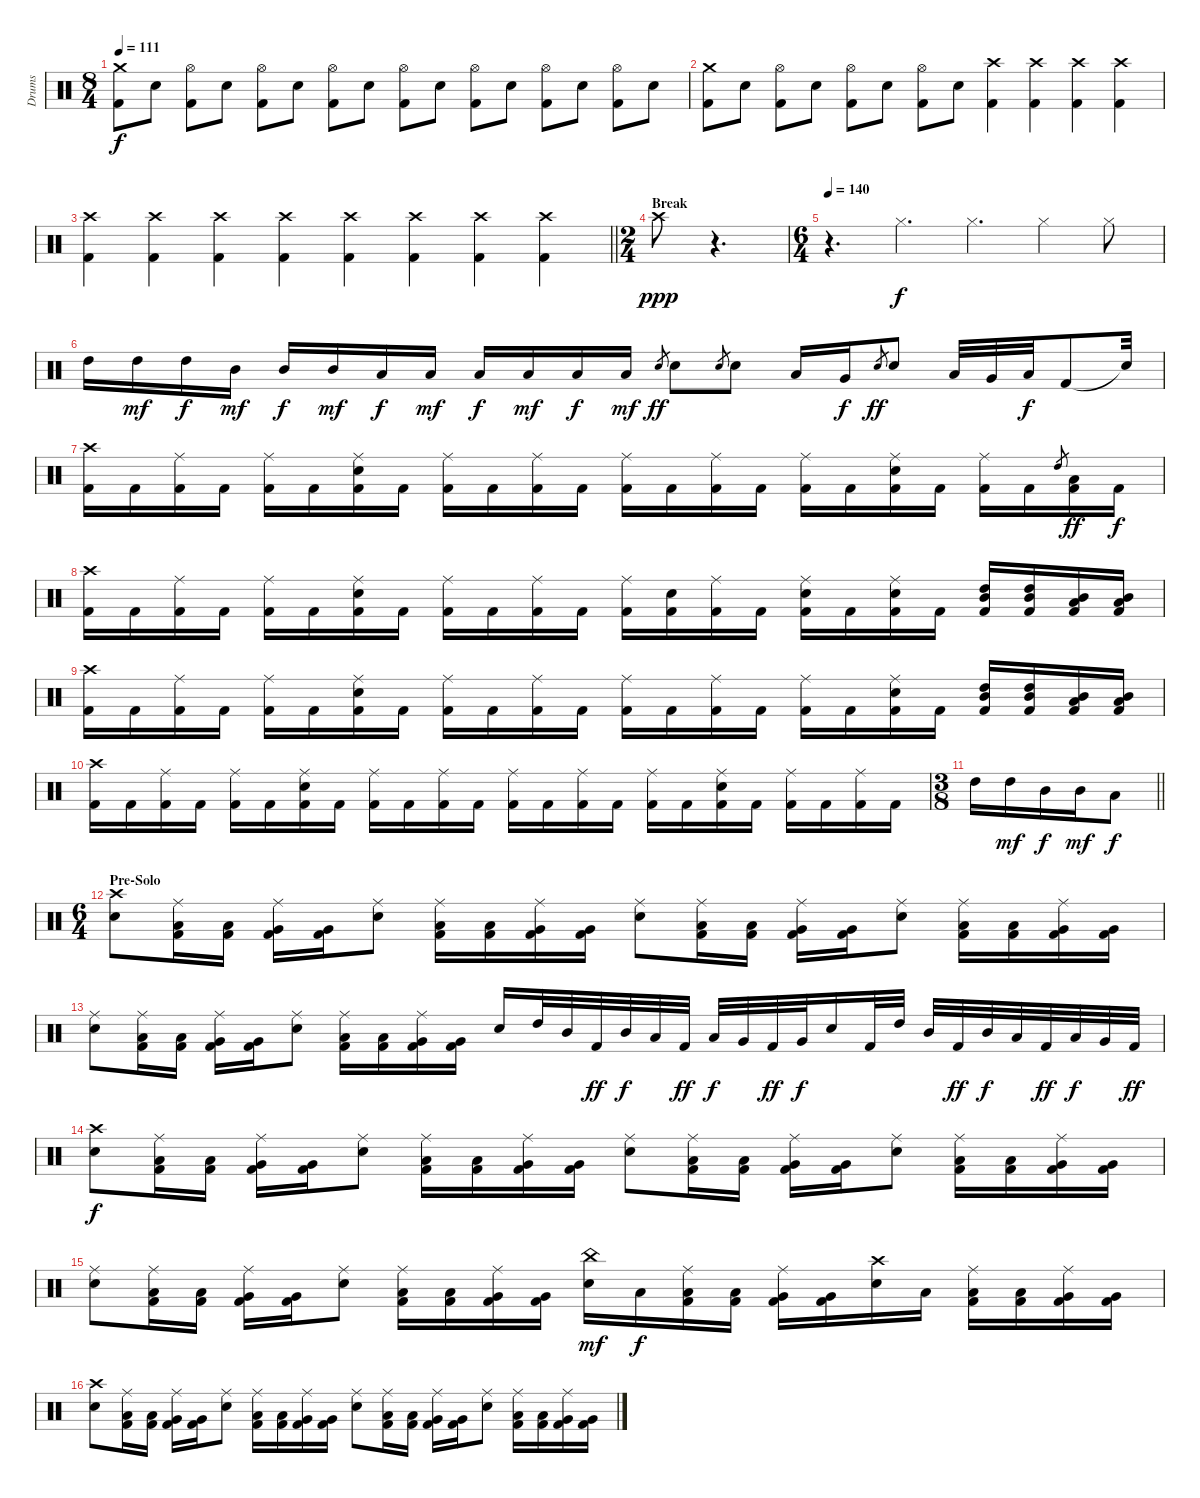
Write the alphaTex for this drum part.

\track ("Drums" "Drums") {instrument percussion}
\staff {score}
\articulation defaults
\ts (8 4)
\tempo 111
\clef neutral
\ks c
("Crash medium (hit)" "Kick (hit) 2").8{dy f} "Snare (hit) 2".8 ("Hi-Hat (open)" "Kick (hit) 2").8 "Snare (hit) 2".8 ("Hi-Hat (open)" "Kick (hit) 2").8 "Snare (hit) 2".8 ("Hi-Hat (open)" "Kick (hit) 2").8 "Snare (hit) 2".8 ("Hi-Hat (open)" "Kick (hit) 2").8 "Snare (hit) 2".8 ("Hi-Hat (open)" "Kick (hit) 2").8 "Snare (hit) 2".8 ("Hi-Hat (open)" "Kick (hit) 2").8 "Snare (hit) 2".8 ("Hi-Hat (open)" "Kick (hit) 2").8 "Snare (hit) 2".8 |
("Crash medium (hit)" "Kick (hit) 2").8 "Snare (hit) 2".8 ("Hi-Hat (open)" "Kick (hit) 2").8 "Snare (hit) 2".8 ("Hi-Hat (open)" "Kick (hit) 2").8 "Snare (hit) 2".8 ("Hi-Hat (open)" "Kick (hit) 2").8 "Snare (hit) 2".8 ("Crash high (hit)" "Kick (hit) 2").4 ("Crash high (hit)" "Kick (hit) 2").4 ("Crash high (hit)" "Kick (hit) 2").4 ("Crash high (hit)" "Kick (hit) 2").4 |
\barLineRight lightlight
("Crash high (hit)" "Kick (hit) 2").4 ("Crash high (hit)" "Kick (hit) 2").4 ("Crash high (hit)" "Kick (hit) 2").4 ("Crash high (hit)" "Kick (hit) 2").4 ("Crash high (hit)" "Kick (hit) 2").4 ("Crash high (hit)" "Kick (hit) 2").4 ("Crash high (hit)" "Kick (hit) 2").4 ("Crash high (hit)" "Kick (hit) 2").4 |
\ts (2 4)
\section ("" "Break")
"Crash high (hit)".8{dy ppp} r.4{d} |
\ts (6 4)
\tempo 140
r.4{d} "Hi-Hat (closed)".4{d dy f} "Hi-Hat (closed)".4{d} "Hi-Hat (closed)".4 "Hi-Hat (closed)".8 |
"High Tom (hit)".16 "High Tom (hit)".16{dy mf} "High Tom (hit)".16{dy f} "Mid Tom (hit)".16{dy mf} "Mid Tom (hit)".16{dy f} "Mid Tom (hit)".16{dy mf} "Low Tom (hit)".16{dy f} "Low Tom (hit)".16{dy mf} "Low Tom (hit)".16{dy f} "Low Tom (hit)".16{dy mf} "Low Tom (hit)".16{dy f} "Low Tom (hit)".16{dy mf} "Snare (hit) 2".8{gr dy ff} "Snare (hit) 2".8 "Snare (hit) 2".8{gr} "Snare (hit) 2".8 "Low Tom (hit)".16 "Very Low Tom (hit)".16{dy f} "Snare (hit) 2".8{gr dy ff} "Snare (hit) 2".8 "Low Tom (hit)".32 "Very Low Tom (hit)".32 "Low Floor Tom (hit)".32{dy f} "Kick (hit) 2".8 "Snare (hit)"{t}.32 |
("Crash high (hit)" "Kick (hit) 2").16 "Kick (hit) 2".16 ("Ride (middle)" "Kick (hit) 2").16 "Kick (hit) 2".16 ("Ride (middle)" "Kick (hit) 2").16 "Kick (hit) 2".16 ("Ride (middle)" "Snare (hit) 2" "Kick (hit) 2").16 "Kick (hit) 2".16 ("Ride (middle)" "Kick (hit) 2").16 "Kick (hit) 2".16 ("Ride (middle)" "Kick (hit) 2").16 "Kick (hit) 2".16 ("Ride (middle)" "Kick (hit) 2").16 "Kick (hit) 2".16 ("Ride (middle)" "Kick (hit) 2").16 "Kick (hit) 2".16 ("Ride (middle)" "Kick (hit) 2").16 "Kick (hit) 2".16 ("Ride (middle)" "Snare (hit) 2" "Kick (hit) 2").16 "Kick (hit) 2".16 ("Ride (middle)" "Kick (hit) 2").16 "Kick (hit) 2".16 "High Tom (hit)".8{gr} ("Low Tom (hit)" "Kick (hit) 2").16{dy ff} "Kick (hit) 2".16{dy f} |
("Crash high (hit)" "Kick (hit) 2").16 "Kick (hit) 2".16 ("Ride (middle)" "Kick (hit) 2").16 "Kick (hit) 2".16 ("Ride (middle)" "Kick (hit) 2").16 "Kick (hit) 2".16 ("Ride (middle)" "Snare (hit) 2" "Kick (hit) 2").16 "Kick (hit) 2".16 ("Ride (middle)" "Kick (hit) 2").16 "Kick (hit) 2".16 ("Ride (middle)" "Kick (hit) 2").16 "Kick (hit) 2".16 ("Ride (middle)" "Kick (hit) 2").16 ("Snare (hit) 2" "Kick (hit) 2").16 ("Ride (middle)" "Kick (hit) 2").16 "Kick (hit) 2".16 ("Ride (middle)" "Snare (hit) 2" "Kick (hit) 2").16 "Kick (hit) 2".16 ("Ride (middle)" "Snare (hit) 2" "Kick (hit) 2").16 "Kick (hit) 2".16 ("Mid Tom (hit)" "High Tom (hit)" "Kick (hit) 2").16 ("Mid Tom (hit)" "High Tom (hit)" "Kick (hit) 2").16 ("Low Tom (hit)" "Mid Tom (hit)" "Kick (hit) 2").16 ("Low Tom (hit)" "Mid Tom (hit)" "Kick (hit) 2").16 |
("Crash high (hit)" "Kick (hit) 2").16 "Kick (hit) 2".16 ("Ride (middle)" "Kick (hit) 2").16 "Kick (hit) 2".16 ("Ride (middle)" "Kick (hit) 2").16 "Kick (hit) 2".16 ("Ride (middle)" "Snare (hit) 2" "Kick (hit) 2").16 "Kick (hit) 2".16 ("Ride (middle)" "Kick (hit) 2").16 "Kick (hit) 2".16 ("Ride (middle)" "Kick (hit) 2").16 "Kick (hit) 2".16 ("Ride (middle)" "Kick (hit) 2").16 "Kick (hit) 2".16 ("Ride (middle)" "Kick (hit) 2").16 "Kick (hit) 2".16 ("Ride (middle)" "Kick (hit) 2").16 "Kick (hit) 2".16 ("Ride (middle)" "Snare (hit) 2" "Kick (hit) 2").16 "Kick (hit) 2".16 ("Mid Tom (hit)" "High Tom (hit)" "Kick (hit) 2").16 ("Mid Tom (hit)" "High Tom (hit)" "Kick (hit) 2").16 ("Low Tom (hit)" "Mid Tom (hit)" "Kick (hit) 2").16 ("Low Tom (hit)" "Mid Tom (hit)" "Kick (hit) 2").16 |
("Crash high (hit)" "Kick (hit) 2").16 "Kick (hit) 2".16 ("Ride (middle)" "Kick (hit) 2").16 "Kick (hit) 2".16 ("Ride (middle)" "Kick (hit) 2").16 "Kick (hit) 2".16 ("Ride (middle)" "Snare (hit) 2" "Kick (hit) 2").16 "Kick (hit) 2".16 ("Ride (middle)" "Kick (hit) 2").16 "Kick (hit) 2".16 ("Ride (middle)" "Kick (hit) 2").16 "Kick (hit) 2".16 ("Ride (middle)" "Kick (hit) 2").16 "Kick (hit) 2".16 ("Ride (middle)" "Kick (hit) 2").16 "Kick (hit) 2".16 ("Ride (middle)" "Kick (hit) 2").16 "Kick (hit) 2".16 ("Ride (middle)" "Snare (hit) 2" "Kick (hit) 2").16 "Kick (hit) 2".16 ("Ride (middle)" "Kick (hit) 2").16 "Kick (hit) 2".16 ("Ride (middle)" "Kick (hit) 2").16 "Kick (hit) 2".16 |
\ts (3 8)
\barLineRight lightlight "High Tom (hit)".16 "High Tom (hit)".16{dy mf} "Mid Tom (hit)".16{dy f} "Mid Tom (hit)".16{dy mf} "Low Tom (hit)".8{dy f}
|
\ts (6 4)
\section ("" "Pre-Solo")
("Crash high (hit)" "Snare (hit) 2").8 ("Ride (middle)" "Low Tom (hit)" "Kick (hit) 2").16 ("Low Tom (hit)" "Kick (hit) 2").16 ("Ride (middle)" "Very Low Tom (hit)" "Kick (hit) 2").16 ("Very Low Tom (hit)" "Kick (hit) 2").16 ("Ride (middle)" "Snare (hit) 2").8 ("Ride (middle)" "Low Tom (hit)" "Kick (hit) 2").16 ("Low Tom (hit)" "Kick (hit) 2").16 ("Ride (middle)" "Very Low Tom (hit)" "Kick (hit) 2").16 ("Very Low Tom (hit)" "Kick (hit) 2").16 ("Ride (middle)" "Snare (hit) 2").8 ("Ride (middle)" "Low Tom (hit)" "Kick (hit) 2").16 ("Low Tom (hit)" "Kick (hit) 2").16 ("Ride (middle)" "Very Low Tom (hit)" "Kick (hit) 2").16 ("Very Low Tom (hit)" "Kick (hit) 2").16 ("Ride (middle)" "Snare (hit) 2").8 ("Ride (middle)" "Low Tom (hit)" "Kick (hit) 2").16 ("Low Tom (hit)" "Kick (hit) 2").16 ("Ride (middle)" "Very Low Tom (hit)" "Kick (hit) 2").16 ("Very Low Tom (hit)" "Kick (hit) 2").16 |
("Ride (middle)" "Snare (hit) 2").8 ("Ride (middle)" "Low Tom (hit)" "Kick (hit) 2").16 ("Low Tom (hit)" "Kick (hit) 2").16 ("Ride (middle)" "Very Low Tom (hit)" "Kick (hit) 2").16 ("Very Low Tom (hit)" "Kick (hit) 2").16 ("Ride (middle)" "Snare (hit) 2").8 ("Ride (middle)" "Low Tom (hit)" "Kick (hit) 2").16 ("Low Tom (hit)" "Kick (hit) 2").16 ("Ride (middle)" "Very Low Tom (hit)" "Kick (hit) 2").16 ("Very Low Tom (hit)" "Kick (hit) 2").16 "Snare (hit) 2".16 "High Tom (hit)".32 "Mid Tom (hit)".32 "Kick (hit) 2".32{dy ff} "Mid Tom (hit)".32{dy f} "Low Tom (hit)".32 "Kick (hit) 2".32{dy ff} "Low Tom (hit)".32{dy f} "Very Low Tom (hit)".32 "Kick (hit) 2".32{dy ff} "Very Low Tom (hit)".32{dy f} "Snare (hit) 2".16 "Kick (hit) 2".32 "High Tom (hit)".32 "Mid Tom (hit)".32 "Kick (hit) 2".32{dy ff} "Mid Tom (hit)".32{dy f} "Low Tom (hit)".32 "Kick (hit) 2".32{dy ff} "Low Tom (hit)".32{dy f} "Very Low Tom (hit)".32 "Kick (hit) 2".32{dy ff} |
("Crash high (hit)" "Snare (hit) 2").8{dy f} ("Ride (middle)" "Low Tom (hit)" "Kick (hit) 2").16 ("Low Tom (hit)" "Kick (hit) 2").16 ("Ride (middle)" "Very Low Tom (hit)" "Kick (hit) 2").16 ("Very Low Tom (hit)" "Kick (hit) 2").16 ("Ride (middle)" "Snare (hit) 2").8 ("Ride (middle)" "Low Tom (hit)" "Kick (hit) 2").16 ("Low Tom (hit)" "Kick (hit) 2").16 ("Ride (middle)" "Very Low Tom (hit)" "Kick (hit) 2").16 ("Very Low Tom (hit)" "Kick (hit) 2").16 ("Ride (middle)" "Snare (hit) 2").8 ("Ride (middle)" "Low Tom (hit)" "Kick (hit) 2").16 ("Low Tom (hit)" "Kick (hit) 2").16 ("Ride (middle)" "Very Low Tom (hit)" "Kick (hit) 2").16 ("Very Low Tom (hit)" "Kick (hit) 2").16 ("Ride (middle)" "Snare (hit) 2").8 ("Ride (middle)" "Low Tom (hit)" "Kick (hit) 2").16 ("Low Tom (hit)" "Kick (hit) 2").16 ("Ride (middle)" "Very Low Tom (hit)" "Kick (hit) 2").16 ("Very Low Tom (hit)" "Kick (hit) 2").16 |
("Ride (middle)" "Snare (hit) 2").8 ("Ride (middle)" "Low Tom (hit)" "Kick (hit) 2").16 ("Low Tom (hit)" "Kick (hit) 2").16 ("Ride (middle)" "Very Low Tom (hit)" "Kick (hit) 2").16 ("Very Low Tom (hit)" "Kick (hit) 2").16 ("Ride (middle)" "Snare (hit) 2").8 ("Ride (middle)" "Low Tom (hit)" "Kick (hit) 2").16 ("Low Tom (hit)" "Kick (hit) 2").16 ("Ride (middle)" "Very Low Tom (hit)" "Kick (hit) 2").16 ("Very Low Tom (hit)" "Kick (hit) 2").16 ("China (hit)" "Snare (hit) 2").16{dy mf} "Low Tom (hit)".16{dy f} ("Ride (middle)" "Low Tom (hit)" "Kick (hit) 2").16 ("Low Tom (hit)" "Kick (hit) 2").16 ("Ride (middle)" "Very Low Tom (hit)" "Kick (hit) 2").16 ("Very Low Tom (hit)" "Kick (hit) 2").16 ("Crash high (hit)" "Snare (hit) 2").16 "Low Tom (hit)".16 ("Ride (middle)" "Low Tom (hit)" "Kick (hit) 2").16 ("Low Tom (hit)" "Kick (hit) 2").16 ("Ride (middle)" "Very Low Tom (hit)" "Kick (hit) 2").16 ("Very Low Tom (hit)" "Kick (hit) 2").16 |
("Crash high (hit)" "Snare (hit) 2").8 ("Ride (middle)" "Low Tom (hit)" "Kick (hit) 2").16 ("Low Tom (hit)" "Kick (hit) 2").16 ("Ride (middle)" "Very Low Tom (hit)" "Kick (hit) 2").16 ("Very Low Tom (hit)" "Kick (hit) 2").16 ("Ride (middle)" "Snare (hit) 2").8 ("Ride (middle)" "Low Tom (hit)" "Kick (hit) 2").16 ("Low Tom (hit)" "Kick (hit) 2").16 ("Ride (middle)" "Very Low Tom (hit)" "Kick (hit) 2").16 ("Very Low Tom (hit)" "Kick (hit) 2").16 ("Ride (middle)" "Snare (hit) 2").8 ("Ride (middle)" "Low Tom (hit)" "Kick (hit) 2").16 ("Low Tom (hit)" "Kick (hit) 2").16 ("Ride (middle)" "Very Low Tom (hit)" "Kick (hit) 2").16 ("Very Low Tom (hit)" "Kick (hit) 2").16 ("Ride (middle)" "Snare (hit) 2").8 ("Ride (middle)" "Low Tom (hit)" "Kick (hit) 2").16 ("Low Tom (hit)" "Kick (hit) 2").16 ("Ride (middle)" "Very Low Tom (hit)" "Kick (hit) 2").16 ("Very Low Tom (hit)" "Kick (hit) 2").16
